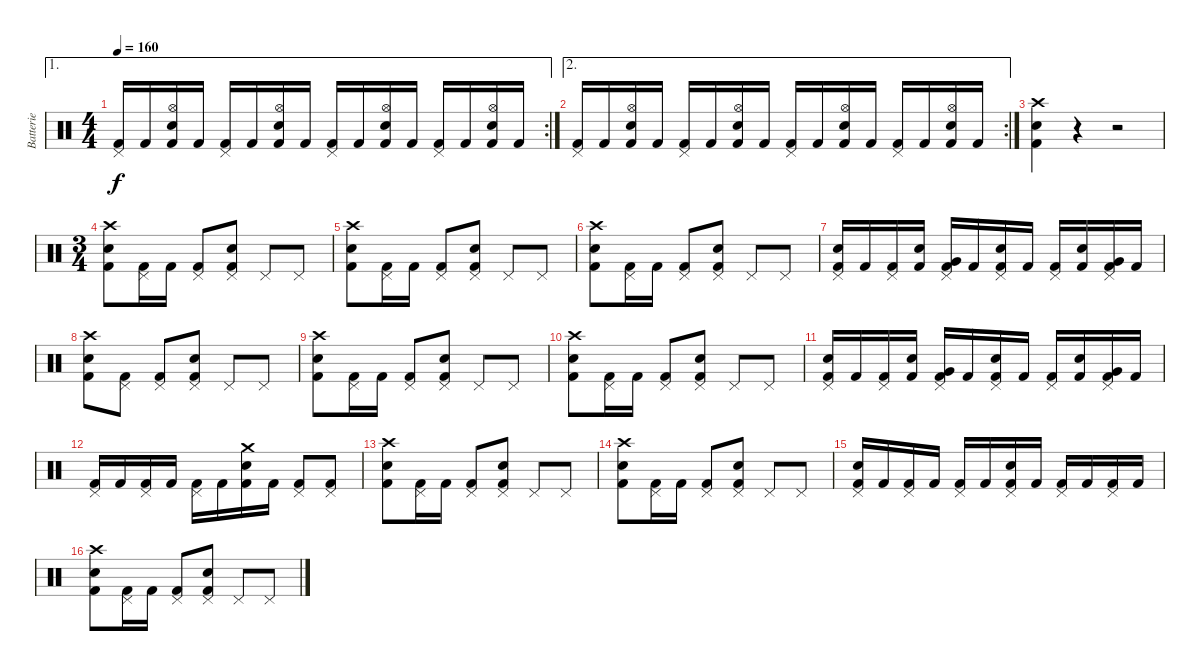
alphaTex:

\track ("Batterie" "Batterie") {instrument percussion}
\staff {score}
\articulation defaults
\ae 1
\rc 2
\ts (4 4)
\tempo 160
\clef neutral
\ks c
("Pedal Hi-Hat (hit)" "Kick (hit) 2").16{dy f} "Kick (hit) 2".16 ("Hi-Hat (open)" "Electric Snare (hit)" "Kick (hit) 2").16 "Kick (hit) 2".16 ("Pedal Hi-Hat (hit)" "Kick (hit) 2").16 "Kick (hit) 2".16 ("Hi-Hat (open)" "Electric Snare (hit)" "Kick (hit) 2").16 "Kick (hit) 2".16 ("Pedal Hi-Hat (hit)" "Kick (hit) 2").16 "Kick (hit) 2".16 ("Hi-Hat (open)" "Electric Snare (hit)" "Kick (hit) 2").16 "Kick (hit) 2".16 ("Pedal Hi-Hat (hit)" "Kick (hit) 2").16 "Kick (hit) 2".16 ("Hi-Hat (open)" "Electric Snare (hit)" "Kick (hit) 2").16 "Kick (hit) 2".16 |
\ae 2
\rc 2
("Pedal Hi-Hat (hit)" "Kick (hit) 2").16 "Kick (hit) 2".16 ("Hi-Hat (open)" "Electric Snare (hit)" "Kick (hit) 2").16 "Kick (hit) 2".16 ("Pedal Hi-Hat (hit)" "Kick (hit) 2").16 "Kick (hit) 2".16 ("Hi-Hat (open)" "Electric Snare (hit)" "Kick (hit) 2").16 "Kick (hit) 2".16 ("Pedal Hi-Hat (hit)" "Kick (hit) 2").16 "Kick (hit) 2".16 ("Hi-Hat (open)" "Electric Snare (hit)" "Kick (hit) 2").16 "Kick (hit) 2".16 ("Pedal Hi-Hat (hit)" "Kick (hit) 2").16 "Kick (hit) 2".16 ("Hi-Hat (open)" "Electric Snare (hit)" "Kick (hit) 2").16 "Kick (hit) 2".16 |
("Crash high (hit)" "Electric Snare (hit)" "Kick (hit) 2").4 r.4 r.2 |
\ts (3 4)
("Crash high (hit)" "Electric Snare (hit)" "Kick (hit) 2").8 ("Pedal Hi-Hat (hit)" "Kick (hit) 2").16 "Kick (hit) 2".16 ("Pedal Hi-Hat (hit)" "Kick (hit) 2").8 ("Pedal Hi-Hat (hit)" "Kick (hit) 2" "Electric Snare (hit)").8 "Pedal Hi-Hat (hit)".8 "Pedal Hi-Hat (hit)".8 |
("Crash high (hit)" "Electric Snare (hit)" "Kick (hit) 2").8 ("Pedal Hi-Hat (hit)" "Kick (hit) 2").16 "Kick (hit) 2".16 ("Pedal Hi-Hat (hit)" "Kick (hit) 2").8 ("Pedal Hi-Hat (hit)" "Kick (hit) 2" "Electric Snare (hit)").8 "Pedal Hi-Hat (hit)".8 "Pedal Hi-Hat (hit)".8 |
("Crash high (hit)" "Electric Snare (hit)" "Kick (hit) 2").8 ("Pedal Hi-Hat (hit)" "Kick (hit) 2").16 "Kick (hit) 2".16 ("Pedal Hi-Hat (hit)" "Kick (hit) 2").8 ("Pedal Hi-Hat (hit)" "Kick (hit) 2" "Electric Snare (hit)").8 "Pedal Hi-Hat (hit)".8 "Pedal Hi-Hat (hit)".8 |
("Pedal Hi-Hat (hit)" "Electric Snare (hit)" "Kick (hit) 2").16 "Kick (hit) 2".16 ("Pedal Hi-Hat (hit)" "Kick (hit) 2").16 ("Electric Snare (hit)" "Kick (hit) 2").16 ("Pedal Hi-Hat (hit)" "Very Low Tom (hit)" "Kick (hit) 2").16 "Kick (hit) 2".16 ("Pedal Hi-Hat (hit)" "Electric Snare (hit)" "Kick (hit) 2").16 "Kick (hit) 2".16 ("Pedal Hi-Hat (hit)" "Kick (hit) 2").16 ("Electric Snare (hit)" "Kick (hit) 2").16 ("Pedal Hi-Hat (hit)" "Very Low Tom (hit)" "Kick (hit) 2").16 "Kick (hit) 2".16 |
("Crash high (hit)" "Electric Snare (hit)" "Kick (hit) 2").8 ("Pedal Hi-Hat (hit)" "Kick (hit) 2").8 ("Pedal Hi-Hat (hit)" "Kick (hit) 2").8 ("Pedal Hi-Hat (hit)" "Kick (hit) 2" "Electric Snare (hit)").8 "Pedal Hi-Hat (hit)".8 "Pedal Hi-Hat (hit)".8 |
("Crash high (hit)" "Electric Snare (hit)" "Kick (hit) 2").8 ("Pedal Hi-Hat (hit)" "Kick (hit) 2").16 "Kick (hit) 2".16 ("Pedal Hi-Hat (hit)" "Kick (hit) 2").8 ("Pedal Hi-Hat (hit)" "Kick (hit) 2" "Electric Snare (hit)").8 "Pedal Hi-Hat (hit)".8 "Pedal Hi-Hat (hit)".8 |
("Crash high (hit)" "Electric Snare (hit)" "Kick (hit) 2").8 ("Pedal Hi-Hat (hit)" "Kick (hit) 2").16 "Kick (hit) 2".16 ("Pedal Hi-Hat (hit)" "Kick (hit) 2").8 ("Pedal Hi-Hat (hit)" "Kick (hit) 2" "Electric Snare (hit)").8 "Pedal Hi-Hat (hit)".8 "Pedal Hi-Hat (hit)".8 |
("Pedal Hi-Hat (hit)" "Electric Snare (hit)" "Kick (hit) 2").16 "Kick (hit) 2".16 ("Pedal Hi-Hat (hit)" "Kick (hit) 2").16 ("Electric Snare (hit)" "Kick (hit) 2").16 ("Pedal Hi-Hat (hit)" "Very Low Tom (hit)" "Kick (hit) 2").16 "Kick (hit) 2".16 ("Pedal Hi-Hat (hit)" "Electric Snare (hit)" "Kick (hit) 2").16 "Kick (hit) 2".16 ("Pedal Hi-Hat (hit)" "Kick (hit) 2").16 ("Electric Snare (hit)" "Kick (hit) 2").16 ("Pedal Hi-Hat (hit)" "Very Low Tom (hit)" "Kick (hit) 2").16 "Kick (hit) 2".16 |
("Pedal Hi-Hat (hit)" "Kick (hit) 2").16 "Kick (hit) 2".16 ("Pedal Hi-Hat (hit)" "Kick (hit) 2").16 "Kick (hit) 2".16 ("Pedal Hi-Hat (hit)" "Kick (hit) 2").16 "Kick (hit) 2".16 ("Crash medium (hit)" "Electric Snare (hit)" "Kick (hit) 2").16 "Kick (hit) 2".16 ("Pedal Hi-Hat (hit)" "Kick (hit) 2").8 ("Pedal Hi-Hat (hit)" "Kick (hit) 2").8 |
("Crash high (hit)" "Electric Snare (hit)" "Kick (hit) 2").8 ("Pedal Hi-Hat (hit)" "Kick (hit) 2").16 "Kick (hit) 2".16 ("Pedal Hi-Hat (hit)" "Kick (hit) 2").8 ("Pedal Hi-Hat (hit)" "Kick (hit) 2" "Electric Snare (hit)").8 "Pedal Hi-Hat (hit)".8 "Pedal Hi-Hat (hit)".8 |
("Crash high (hit)" "Electric Snare (hit)" "Kick (hit) 2").8 ("Pedal Hi-Hat (hit)" "Kick (hit) 2").16 "Kick (hit) 2".16 ("Pedal Hi-Hat (hit)" "Kick (hit) 2").8 ("Pedal Hi-Hat (hit)" "Kick (hit) 2" "Electric Snare (hit)").8 "Pedal Hi-Hat (hit)".8 "Pedal Hi-Hat (hit)".8 |
("Pedal Hi-Hat (hit)" "Electric Snare (hit)" "Kick (hit) 2").16 "Kick (hit) 2".16 ("Pedal Hi-Hat (hit)" "Kick (hit) 2").16 "Kick (hit) 2".16 ("Pedal Hi-Hat (hit)" "Kick (hit) 2").16 "Kick (hit) 2".16 ("Pedal Hi-Hat (hit)" "Electric Snare (hit)" "Kick (hit) 2").16 "Kick (hit) 2".16 ("Pedal Hi-Hat (hit)" "Kick (hit) 2").16 "Kick (hit) 2".16 ("Pedal Hi-Hat (hit)" "Kick (hit) 2").16 "Kick (hit) 2".16 |
("Crash high (hit)" "Electric Snare (hit)" "Kick (hit) 2").8 ("Pedal Hi-Hat (hit)" "Kick (hit) 2").16 "Kick (hit) 2".16 ("Pedal Hi-Hat (hit)" "Kick (hit) 2").8 ("Pedal Hi-Hat (hit)" "Kick (hit) 2" "Electric Snare (hit)").8 "Pedal Hi-Hat (hit)".8 "Pedal Hi-Hat (hit)".8
